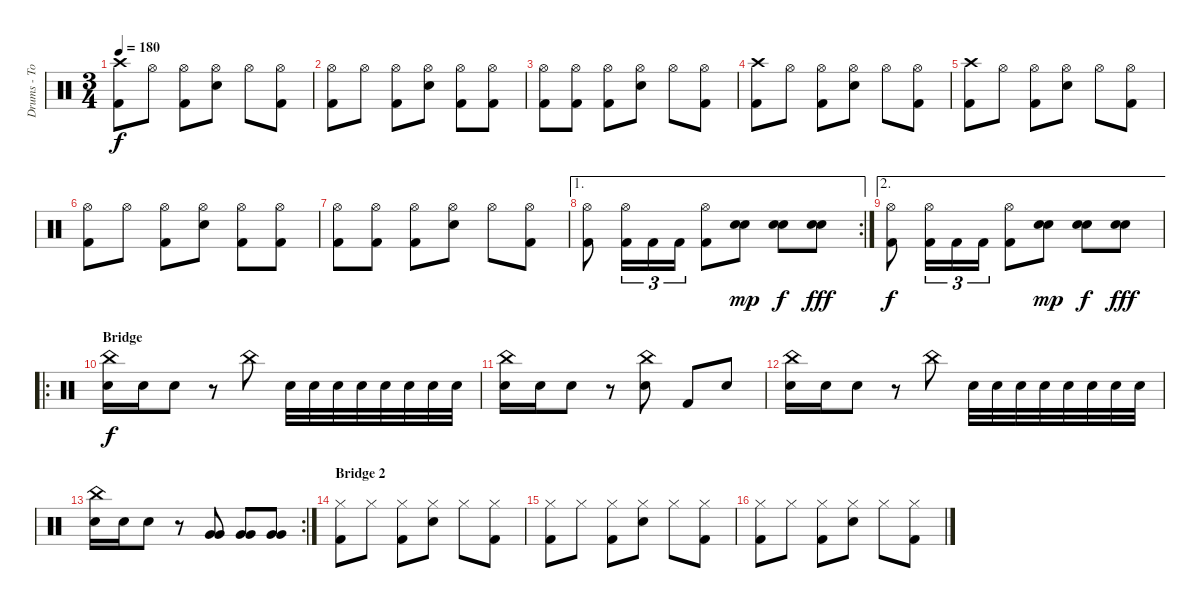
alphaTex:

\track ("Drums - Tomas" "Drums - To") {instrument percussion}
\staff {score}
\articulation defaults
\ts (3 4)
\tempo 180
\clef neutral
\ks c
("Crash high (hit)" "Kick (hit) 2").8{dy f} "Hi-Hat (open)".8 ("Hi-Hat (open)" "Kick (hit) 2").8 ("Hi-Hat (open)" "Electric Snare (hit)").8 "Hi-Hat (open)".8 ("Hi-Hat (open)" "Kick (hit) 2").8 |
("Hi-Hat (open)" "Kick (hit) 2").8 "Hi-Hat (open)".8 ("Hi-Hat (open)" "Kick (hit) 2").8 ("Hi-Hat (open)" "Electric Snare (hit)").8 ("Hi-Hat (open)" "Kick (hit) 2").8 ("Hi-Hat (open)" "Kick (hit) 2").8 |
("Hi-Hat (open)" "Kick (hit) 2").8 ("Hi-Hat (open)" "Kick (hit) 2").8 ("Hi-Hat (open)" "Kick (hit) 2").8 ("Hi-Hat (open)" "Electric Snare (hit)").8 "Hi-Hat (open)".8 ("Hi-Hat (open)" "Kick (hit) 2").8 |
("Crash high (hit)" "Kick (hit) 2").8 "Hi-Hat (open)".8 ("Hi-Hat (open)" "Kick (hit) 2").8 ("Hi-Hat (open)" "Electric Snare (hit)").8 "Hi-Hat (open)".8 ("Hi-Hat (open)" "Kick (hit) 2").8 |
("Crash high (hit)" "Kick (hit) 2").8 "Hi-Hat (open)".8 ("Hi-Hat (open)" "Kick (hit) 2").8 ("Hi-Hat (open)" "Electric Snare (hit)").8 "Hi-Hat (open)".8 ("Hi-Hat (open)" "Kick (hit) 2").8 |
("Hi-Hat (open)" "Kick (hit) 2").8 "Hi-Hat (open)".8 ("Hi-Hat (open)" "Kick (hit) 2").8 ("Hi-Hat (open)" "Electric Snare (hit)").8 ("Hi-Hat (open)" "Kick (hit) 2").8 ("Hi-Hat (open)" "Kick (hit) 2").8 |
("Hi-Hat (open)" "Kick (hit) 2").8 ("Hi-Hat (open)" "Kick (hit) 2").8 ("Hi-Hat (open)" "Kick (hit) 2").8 ("Hi-Hat (open)" "Electric Snare (hit)").8 "Hi-Hat (open)".8 ("Hi-Hat (open)" "Kick (hit) 2").8 |
\ae 1
\rc 2
("Hi-Hat (open)" "Kick (hit) 2").8 ("Hi-Hat (open)" "Kick (hit) 2").16{tu (3 2)} "Kick (hit) 2".16{tu (3 2)} "Kick (hit) 2".16{tu (3 2)} ("Hi-Hat (open)" "Kick (hit) 2").8 ("Electric Snare (hit)" "Electric Snare (hit)").8{dy mp} ("Electric Snare (hit)" "Electric Snare (hit)").8{dy f} ("Electric Snare (hit)" "Electric Snare (hit)").8{dy fff} |
\ae 2
("Hi-Hat (open)" "Kick (hit) 2").8{dy f} ("Hi-Hat (open)" "Kick (hit) 2").16{tu (3 2)} "Kick (hit) 2".16{tu (3 2)} "Kick (hit) 2".16{tu (3 2)} ("Hi-Hat (open)" "Kick (hit) 2").8 ("Electric Snare (hit)" "Electric Snare (hit)").8{dy mp} ("Electric Snare (hit)" "Electric Snare (hit)").8{dy f} ("Electric Snare (hit)" "Electric Snare (hit)").8{dy fff} |
\ro
\section ("" "Bridge")
("China (hit)" "Electric Snare (hit)").16{dy f} "Electric Snare (hit)".16 "Electric Snare (hit)".8 r.8 "China (hit)".8 "Electric Snare (hit)".32 "Electric Snare (hit)".32 "Electric Snare (hit)".32 "Electric Snare (hit)".32 "Electric Snare (hit)".32 "Electric Snare (hit)".32 "Electric Snare (hit)".32 "Electric Snare (hit)".32 |
("China (hit)" "Electric Snare (hit)").16 "Electric Snare (hit)".16 "Electric Snare (hit)".8 r.8 ("China (hit)" "Electric Snare (hit)").8 "Kick (hit) 2".8 "Electric Snare (hit)".8 |
("China (hit)" "Electric Snare (hit)").16 "Electric Snare (hit)".16 "Electric Snare (hit)".8 r.8 "China (hit)".8 "Electric Snare (hit)".32 "Electric Snare (hit)".32 "Electric Snare (hit)".32 "Electric Snare (hit)".32 "Electric Snare (hit)".32 "Electric Snare (hit)".32 "Electric Snare (hit)".32 "Electric Snare (hit)".32 |
\rc 2
("China (hit)" "Electric Snare (hit)").16 "Electric Snare (hit)".16 "Electric Snare (hit)".8 r.8 ("Very Low Tom (hit)" "Very Low Tom (hit)").8 ("Very Low Tom (hit)" "Very Low Tom (hit)").8 ("Very Low Tom (hit)" "Very Low Tom (hit)").8 |
\section ("" "Bridge 2")
("Hi-Hat (closed)" "Kick (hit) 2").8 "Hi-Hat (closed)".8 ("Hi-Hat (closed)" "Kick (hit) 2").8 ("Hi-Hat (closed)" "Electric Snare (hit)").8 "Hi-Hat (closed)".8 ("Hi-Hat (closed)" "Kick (hit) 2").8 |
("Hi-Hat (closed)" "Kick (hit) 2").8 "Hi-Hat (closed)".8 ("Hi-Hat (closed)" "Kick (hit) 2").8 ("Hi-Hat (closed)" "Electric Snare (hit)").8 "Hi-Hat (closed)".8 ("Hi-Hat (closed)" "Kick (hit) 2").8 |
("Hi-Hat (closed)" "Kick (hit) 2").8 "Hi-Hat (closed)".8 ("Hi-Hat (closed)" "Kick (hit) 2").8 ("Hi-Hat (closed)" "Electric Snare (hit)").8 "Hi-Hat (closed)".8 ("Hi-Hat (closed)" "Kick (hit) 2").8
